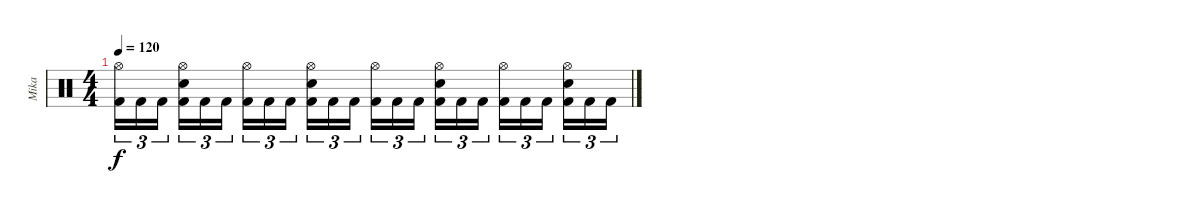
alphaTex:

\track ("Mika" "Mika") {instrument percussion}
\staff {score}
\articulation defaults
\ts (4 4)
\tempo 120
\clef neutral
\ks c
("Hi-Hat (open)" "Kick (hit) 2").16{tu (3 2) dy f} "Kick (hit) 2".16{tu (3 2)} "Kick (hit) 2".16{tu (3 2) beam splitsecondary} ("Hi-Hat (open)" "Electric Snare (hit)" "Kick (hit) 2").16{tu (3 2)} "Kick (hit) 2".16{tu (3 2)} "Kick (hit) 2".16{tu (3 2)} ("Hi-Hat (open)" "Kick (hit) 2").16{tu (3 2)} "Kick (hit) 2".16{tu (3 2)} "Kick (hit) 2".16{tu (3 2) beam splitsecondary} ("Hi-Hat (open)" "Electric Snare (hit)" "Kick (hit) 2").16{tu (3 2)} "Kick (hit) 2".16{tu (3 2)} "Kick (hit) 2".16{tu (3 2)} ("Hi-Hat (open)" "Kick (hit) 2").16{tu (3 2)} "Kick (hit) 2".16{tu (3 2)} "Kick (hit) 2".16{tu (3 2) beam splitsecondary} ("Hi-Hat (open)" "Electric Snare (hit)" "Kick (hit) 2").16{tu (3 2)} "Kick (hit) 2".16{tu (3 2)} "Kick (hit) 2".16{tu (3 2)} ("Hi-Hat (open)" "Kick (hit) 2").16{tu (3 2)} "Kick (hit) 2".16{tu (3 2)} "Kick (hit) 2".16{tu (3 2) beam splitsecondary} ("Hi-Hat (open)" "Electric Snare (hit)" "Kick (hit) 2").16{tu (3 2)} "Kick (hit) 2".16{tu (3 2)} "Kick (hit) 2".16{tu (3 2)}
